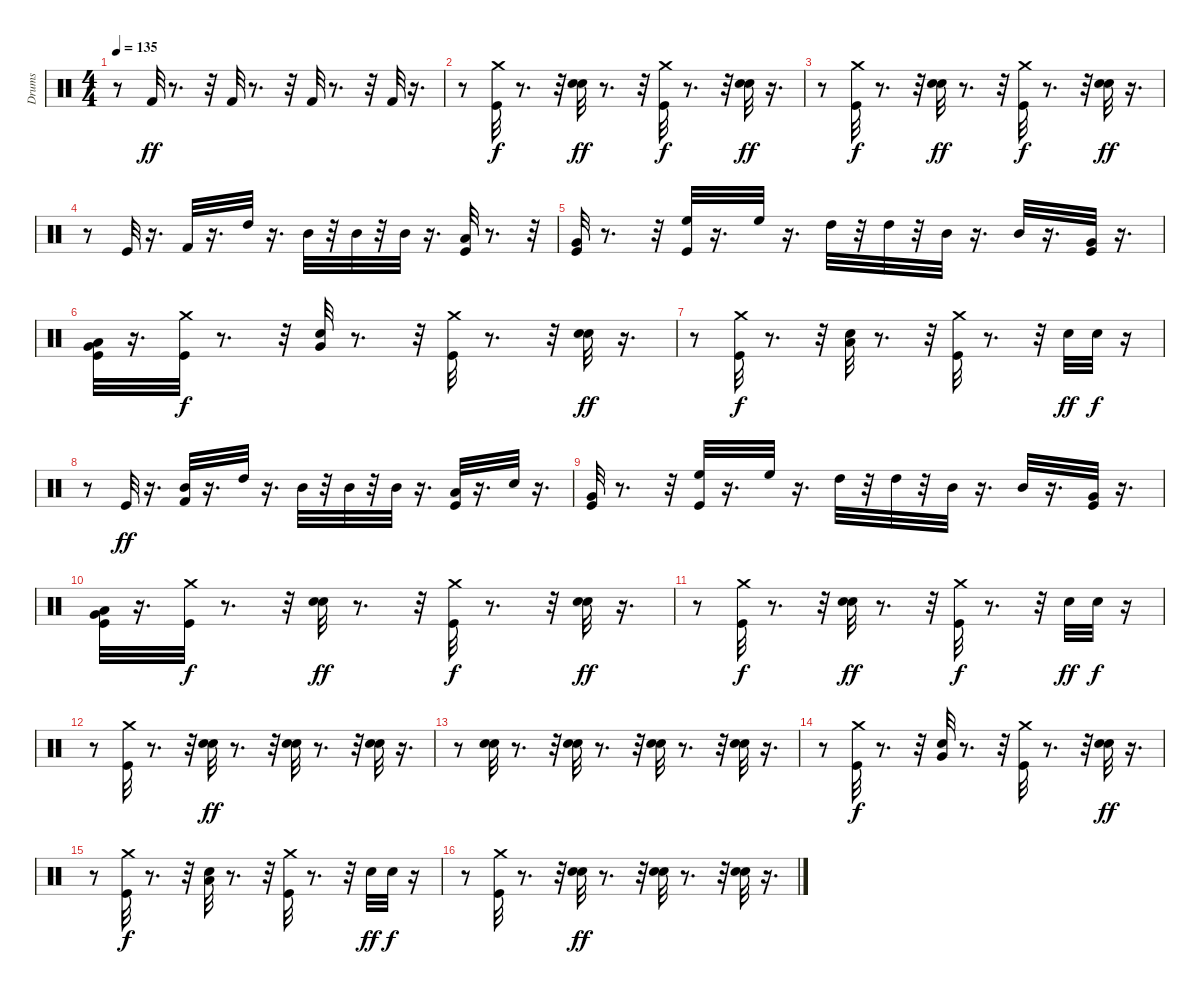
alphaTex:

\track ("Drums" "Drums") {instrument percussion}
\staff {score}
\articulation defaults
\ts (4 4)
\tempo 135
\clef neutral
\ks c
r.8{dy mp} "Kick (hit) 2".32{dy ff} r.8{d} r.32 "Kick (hit) 2".32 r.8{d} r.32 "Kick (hit) 2".32 r.8{d} r.32 "Kick (hit) 2".32 r.16{d} |
r.8 ("Kick (hit)" "Crash medium (hit)").32{dy f} r.8{d} r.32 ("Electric Snare (hit)" "Snare (hit) 2").32{dy ff} r.8{d} r.32 ("Kick (hit)" "Crash medium (hit)").32{dy f} r.8{d} r.32 ("Snare (hit) 2" "Electric Snare (hit)").32{dy ff} r.16{d} |
r.8 ("Kick (hit)" "Crash medium (hit)").32{dy f} r.8{d} r.32 ("Electric Snare (hit)" "Snare (hit) 2").32{dy ff} r.8{d} r.32 ("Kick (hit)" "Crash medium (hit)").32{dy f} r.8{d} r.32 ("Snare (hit) 2" "Electric Snare (hit)").32{dy ff} r.16{d} |
r.8 "Kick (hit)".32 r.16{d} "Kick (hit) 2".32 r.16{d} "High Tom (hit)".32 r.16{d} "Mid Tom (hit)".32 r.32 "Mid Tom (hit)".32 r.32 "Mid Tom (hit)".32 r.16{d} ("Kick (hit)" "Low Tom (hit)").32 r.8{d} r.32 |
("Kick (hit)" "Very Low Tom (hit)").32 r.8{d} r.32 ("Kick (hit)" "High Floor Tom (hit)").32 r.16{d} "High Floor Tom (hit)".32 r.16{d} "High Tom (hit)".32 r.32 "High Tom (hit)".32 r.32 "Mid Tom (hit)".32 r.16{d} "Mid Tom (hit)".32 r.16{d} ("Kick (hit)" "Very Low Tom (hit)").32 r.16{d} |
("Kick (hit)" "Very Low Tom (hit)" "Low Floor Tom (hit)").32 r.16{d} ("Crash medium (hit)" "Kick (hit)").32{dy f} r.8{d} r.32 ("Electric Snare (hit)" "Very Low Tom (hit)").32 r.8{d} r.32 ("Kick (hit)" "Crash medium (hit)").32 r.8{d} r.32 ("Snare (hit) 2" "Electric Snare (hit)").32{dy ff} r.16{d} |
r.8 ("Kick (hit)" "Crash medium (hit)").32{dy f} r.8{d} r.32 ("Electric Snare (hit)" "Low Tom (hit)").32 r.8{d} r.32 ("Kick (hit)" "Crash medium (hit)").32 r.8{d} r.32 "Snare (hit) 2".32{dy ff} "Electric Snare (hit)".32{dy f} r.16 |
r.8 "Kick (hit)".32{dy ff} r.16{d} ("Kick (hit) 2" "Mid Tom (hit)").32 r.16{d} "High Tom (hit)".32 r.16{d} "Mid Tom (hit)".32 r.32 "Mid Tom (hit)".32 r.32 "Mid Tom (hit)".32 r.16{d} ("Kick (hit)" "Low Tom (hit)").32 r.16{d} "Electric Snare (hit)".32 r.16{d} |
("Kick (hit)" "Very Low Tom (hit)").32 r.8{d} r.32 ("Kick (hit)" "High Floor Tom (hit)").32 r.16{d} "High Floor Tom (hit)".32 r.16{d} "High Tom (hit)".32 r.32 "High Tom (hit)".32 r.32 "Mid Tom (hit)".32 r.16{d} "Mid Tom (hit)".32 r.16{d} ("Kick (hit)" "Very Low Tom (hit)").32 r.16{d} |
("Kick (hit)" "Very Low Tom (hit)" "Low Floor Tom (hit)").32 r.16{d} ("Crash medium (hit)" "Kick (hit)").32{dy f} r.8{d} r.32 ("Electric Snare (hit)" "Snare (hit) 2").32{dy ff} r.8{d} r.32 ("Kick (hit)" "Crash medium (hit)").32{dy f} r.8{d} r.32 ("Snare (hit) 2" "Electric Snare (hit)").32{dy ff} r.16{d} |
r.8 ("Kick (hit)" "Crash medium (hit)").32{dy f} r.8{d} r.32 ("Electric Snare (hit)" "Snare (hit) 2").32{dy ff} r.8{d} r.32 ("Kick (hit)" "Crash medium (hit)").32{dy f} r.8{d} r.32 "Snare (hit) 2".32{dy ff} "Electric Snare (hit)".32{dy f} r.16 |
r.8 ("Kick (hit)" "Crash medium (hit)").32 r.8{d} r.32 ("Snare (hit) 2" "Electric Snare (hit)").32{dy ff} r.8{d} r.32 ("Snare (hit) 2" "Electric Snare (hit)").32 r.8{d} r.32 ("Snare (hit) 2" "Electric Snare (hit)").32 r.16{d} |
r.8 ("Snare (hit) 2" "Electric Snare (hit)").32 r.8{d} r.32 ("Snare (hit) 2" "Electric Snare (hit)").32 r.8{d} r.32 ("Snare (hit) 2" "Electric Snare (hit)").32 r.8{d} r.32 ("Snare (hit) 2" "Electric Snare (hit)").32 r.16{d} |
r.8 ("Crash medium (hit)" "Kick (hit)").32{dy f} r.8{d} r.32 ("Electric Snare (hit)" "Very Low Tom (hit)").32 r.8{d} r.32 ("Kick (hit)" "Crash medium (hit)").32 r.8{d} r.32 ("Snare (hit) 2" "Electric Snare (hit)").32{dy ff} r.16{d} |
r.8 ("Kick (hit)" "Crash medium (hit)").32{dy f} r.8{d} r.32 ("Electric Snare (hit)" "Low Tom (hit)").32 r.8{d} r.32 ("Kick (hit)" "Crash medium (hit)").32 r.8{d} r.32 "Snare (hit) 2".32{dy ff} "Electric Snare (hit)".32{dy f} r.16 |
r.8 ("Kick (hit)" "Crash medium (hit)").32 r.8{d} r.32 ("Snare (hit) 2" "Electric Snare (hit)").32{dy ff} r.8{d} r.32 ("Snare (hit) 2" "Electric Snare (hit)").32 r.8{d} r.32 ("Snare (hit) 2" "Electric Snare (hit)").32 r.16{d}
